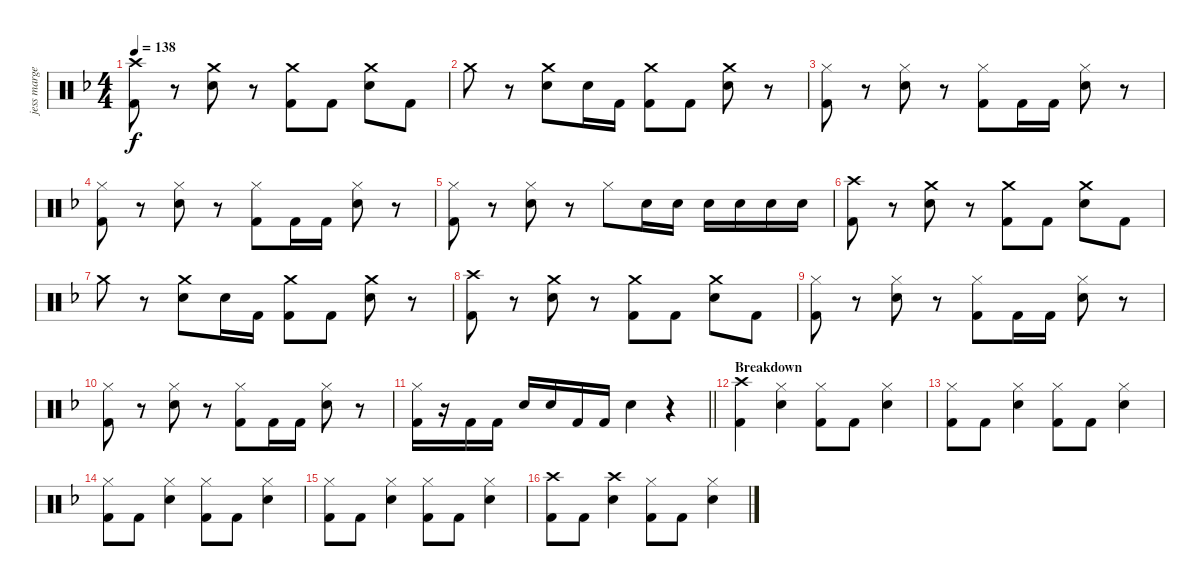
\track ("jess margera" "jess marge") {instrument percussion}
\staff {score}
\articulation defaults
\ts (4 4)
\tempo 138
\clef neutral
\ks f
("Crash high (hit)" "Kick (hit) 2").8{dy f} r.8 ("Crash medium (hit)" "Electric Snare (hit)").8 r.8 ("Crash medium (hit)" "Kick (hit) 2").8 "Kick (hit) 2".8 ("Crash medium (hit)" "Electric Snare (hit)").8 "Kick (hit) 2".8 |
"Crash medium (hit)".8 r.8 ("Crash medium (hit)" "Electric Snare (hit)").8 "Electric Snare (hit)".16 "Kick (hit) 2".16 ("Crash medium (hit)" "Kick (hit) 2").8 "Kick (hit) 2".8 ("Crash medium (hit)" "Electric Snare (hit)").8 r.8 |
("Hi-Hat (closed)" "Kick (hit) 2").8 r.8 ("Hi-Hat (closed)" "Electric Snare (hit)").8 r.8 ("Hi-Hat (closed)" "Kick (hit) 2").8 "Kick (hit) 2".16 "Kick (hit) 2".16 ("Hi-Hat (closed)" "Electric Snare (hit)").8 r.8 |
("Hi-Hat (closed)" "Kick (hit) 2").8 r.8 ("Hi-Hat (closed)" "Electric Snare (hit)").8 r.8 ("Hi-Hat (closed)" "Kick (hit) 2").8 "Kick (hit) 2".16 "Kick (hit) 2".16 ("Hi-Hat (closed)" "Electric Snare (hit)").8 r.8 |
("Hi-Hat (closed)" "Kick (hit) 2").8 r.8 ("Hi-Hat (closed)" "Electric Snare (hit)").8 r.8 "Hi-Hat (closed)".8 "Electric Snare (hit)".16 "Electric Snare (hit)".16 "Electric Snare (hit)".16 "Electric Snare (hit)".16 "Electric Snare (hit)".16 "Electric Snare (hit)".16 |
("Crash high (hit)" "Kick (hit) 2").8 r.8 ("Crash medium (hit)" "Electric Snare (hit)").8 r.8 ("Crash medium (hit)" "Kick (hit) 2").8 "Kick (hit) 2".8 ("Crash medium (hit)" "Electric Snare (hit)").8 "Kick (hit) 2".8 |
"Crash medium (hit)".8 r.8 ("Crash medium (hit)" "Electric Snare (hit)").8 "Electric Snare (hit)".16 "Kick (hit) 2".16 ("Crash medium (hit)" "Kick (hit) 2").8 "Kick (hit) 2".8 ("Crash medium (hit)" "Electric Snare (hit)").8 r.8 |
("Crash high (hit)" "Kick (hit) 2").8 r.8 ("Crash medium (hit)" "Electric Snare (hit)").8 r.8 ("Crash medium (hit)" "Kick (hit) 2").8 "Kick (hit) 2".8 ("Crash medium (hit)" "Electric Snare (hit)").8 "Kick (hit) 2".8 |
("Hi-Hat (closed)" "Kick (hit) 2").8 r.8 ("Hi-Hat (closed)" "Electric Snare (hit)").8 r.8 ("Hi-Hat (closed)" "Kick (hit) 2").8 "Kick (hit) 2".16 "Kick (hit) 2".16 ("Hi-Hat (closed)" "Electric Snare (hit)").8 r.8 |
("Hi-Hat (closed)" "Kick (hit) 2").8 r.8 ("Hi-Hat (closed)" "Electric Snare (hit)").8 r.8 ("Hi-Hat (closed)" "Kick (hit) 2").8 "Kick (hit) 2".16 "Kick (hit) 2".16 ("Hi-Hat (closed)" "Electric Snare (hit)").8 r.8 |
\barLineRight lightlight
("Hi-Hat (closed)" "Kick (hit) 2").16 r.16 "Kick (hit) 2".16 "Kick (hit) 2".16 "Electric Snare (hit)".16 "Electric Snare (hit)".16 "Kick (hit) 2".16 "Kick (hit) 2".16 "Electric Snare (hit)".4 r.4 |
\section ("" "Breakdown")
("Crash high (hit)" "Kick (hit) 2").4 ("Hi-Hat (closed)" "Electric Snare (hit)").4 ("Hi-Hat (closed)" "Kick (hit) 2").8 "Kick (hit) 2".8 ("Hi-Hat (closed)" "Electric Snare (hit)").4 |
("Hi-Hat (closed)" "Kick (hit) 2").8 "Kick (hit) 2".8 ("Hi-Hat (closed)" "Electric Snare (hit)").4 ("Hi-Hat (closed)" "Kick (hit) 2").8 "Kick (hit) 2".8 ("Hi-Hat (closed)" "Electric Snare (hit)").4 |
("Hi-Hat (closed)" "Kick (hit) 2").8 "Kick (hit) 2".8 ("Hi-Hat (closed)" "Electric Snare (hit)").4 ("Hi-Hat (closed)" "Kick (hit) 2").8 "Kick (hit) 2".8 ("Hi-Hat (closed)" "Electric Snare (hit)").4 |
("Hi-Hat (closed)" "Kick (hit) 2").8 "Kick (hit) 2".8 ("Hi-Hat (closed)" "Electric Snare (hit)").4 ("Hi-Hat (closed)" "Kick (hit) 2").8 "Kick (hit) 2".8 ("Hi-Hat (closed)" "Electric Snare (hit)").4 |
("Crash high (hit)" "Kick (hit) 2").8 "Kick (hit) 2".8 ("Crash high (hit)" "Electric Snare (hit)").4 ("Hi-Hat (closed)" "Kick (hit) 2").8 "Kick (hit) 2".8 ("Hi-Hat (closed)" "Electric Snare (hit)").4
